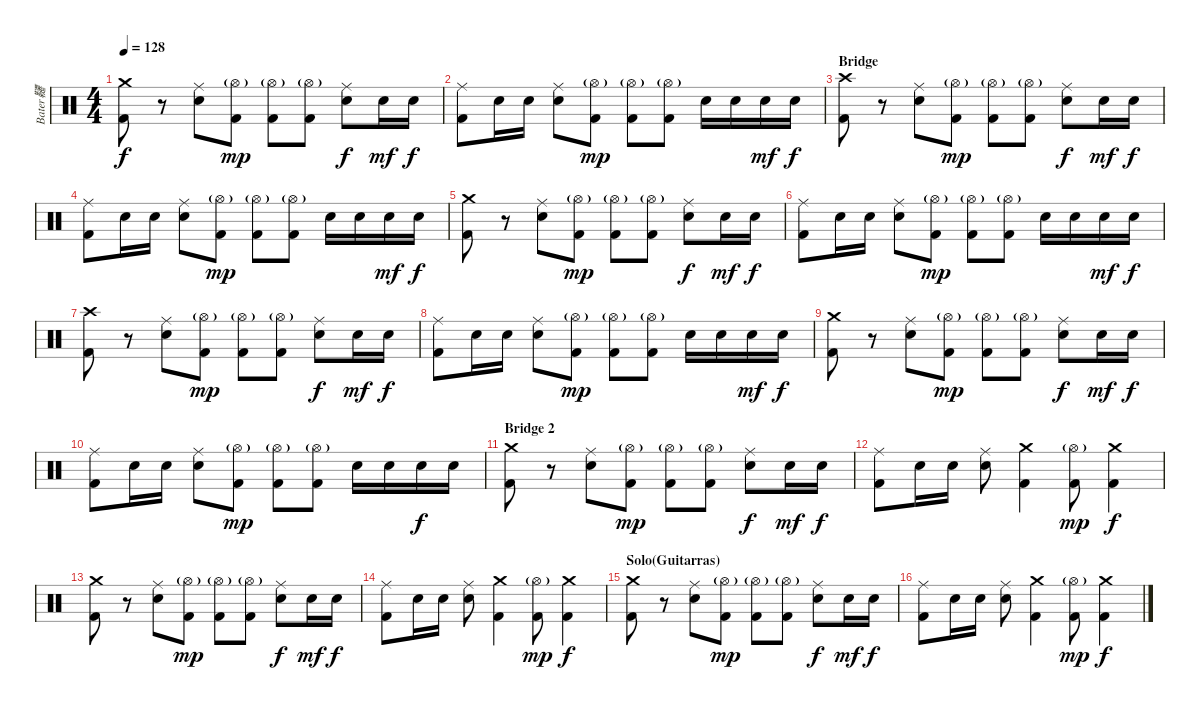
\track ("Bater韆" "Bater韆") {instrument percussion}
\staff {score}
\articulation defaults
\ts (4 4)
\tempo 128
\clef neutral
\ks c
("Crash medium (hit)" "Kick (hit) 2").8{dy f} r.8 ("Ride (middle)" "Electric Snare (hit)").8 ("Hi-Hat (open)"{g} "Kick (hit) 2").8{dy mp} ("Hi-Hat (open)"{g} "Kick (hit) 2").8 ("Hi-Hat (open)"{g} "Kick (hit) 2").8 ("Ride (middle)" "Electric Snare (hit)").8{dy f} "Electric Snare (hit)".16{dy mf} "Electric Snare (hit)".16{dy f} |
("Ride (middle)" "Kick (hit) 2").8 "Electric Snare (hit)".16 "Electric Snare (hit)".16 ("Ride (middle)" "Electric Snare (hit)").8 ("Hi-Hat (open)"{g} "Kick (hit) 2").8{dy mp} ("Hi-Hat (open)"{g} "Kick (hit) 2").8 ("Hi-Hat (open)"{g} "Kick (hit) 2").8 "Electric Snare (hit)".16 "Electric Snare (hit)".16 "Electric Snare (hit)".16{dy mf} "Electric Snare (hit)".16{dy f} |
\section ("" "Bridge")
("Crash high (hit)" "Kick (hit) 2").8 r.8 ("Ride (middle)" "Electric Snare (hit)").8 ("Hi-Hat (open)"{g} "Kick (hit) 2").8{dy mp} ("Hi-Hat (open)"{g} "Kick (hit) 2").8 ("Hi-Hat (open)"{g} "Kick (hit) 2").8 ("Ride (middle)" "Electric Snare (hit)").8{dy f} "Electric Snare (hit)".16{dy mf} "Electric Snare (hit)".16{dy f} |
("Ride (middle)" "Kick (hit) 2").8 "Electric Snare (hit)".16 "Electric Snare (hit)".16 ("Ride (middle)" "Electric Snare (hit)").8 ("Hi-Hat (open)"{g} "Kick (hit) 2").8{dy mp} ("Hi-Hat (open)"{g} "Kick (hit) 2").8 ("Hi-Hat (open)"{g} "Kick (hit) 2").8 "Electric Snare (hit)".16 "Electric Snare (hit)".16 "Electric Snare (hit)".16{dy mf} "Electric Snare (hit)".16{dy f} |
("Crash medium (hit)" "Kick (hit) 2").8 r.8 ("Ride (middle)" "Electric Snare (hit)").8 ("Hi-Hat (open)"{g} "Kick (hit) 2").8{dy mp} ("Hi-Hat (open)"{g} "Kick (hit) 2").8 ("Hi-Hat (open)"{g} "Kick (hit) 2").8 ("Ride (middle)" "Electric Snare (hit)").8{dy f} "Electric Snare (hit)".16{dy mf} "Electric Snare (hit)".16{dy f} |
("Ride (middle)" "Kick (hit) 2").8 "Electric Snare (hit)".16 "Electric Snare (hit)".16 ("Ride (middle)" "Electric Snare (hit)").8 ("Hi-Hat (open)"{g} "Kick (hit) 2").8{dy mp} ("Hi-Hat (open)"{g} "Kick (hit) 2").8 ("Hi-Hat (open)"{g} "Kick (hit) 2").8 "Electric Snare (hit)".16 "Electric Snare (hit)".16 "Electric Snare (hit)".16{dy mf} "Electric Snare (hit)".16{dy f} |
("Crash high (hit)" "Kick (hit) 2").8 r.8 ("Ride (middle)" "Electric Snare (hit)").8 ("Hi-Hat (open)"{g} "Kick (hit) 2").8{dy mp} ("Hi-Hat (open)"{g} "Kick (hit) 2").8 ("Hi-Hat (open)"{g} "Kick (hit) 2").8 ("Ride (middle)" "Electric Snare (hit)").8{dy f} "Electric Snare (hit)".16{dy mf} "Electric Snare (hit)".16{dy f} |
("Ride (middle)" "Kick (hit) 2").8 "Electric Snare (hit)".16 "Electric Snare (hit)".16 ("Ride (middle)" "Electric Snare (hit)").8 ("Hi-Hat (open)"{g} "Kick (hit) 2").8{dy mp} ("Hi-Hat (open)"{g} "Kick (hit) 2").8 ("Hi-Hat (open)"{g} "Kick (hit) 2").8 "Electric Snare (hit)".16 "Electric Snare (hit)".16 "Electric Snare (hit)".16{dy mf} "Electric Snare (hit)".16{dy f} |
("Crash medium (hit)" "Kick (hit) 2").8 r.8 ("Ride (middle)" "Electric Snare (hit)").8 ("Hi-Hat (open)"{g} "Kick (hit) 2").8{dy mp} ("Hi-Hat (open)"{g} "Kick (hit) 2").8 ("Hi-Hat (open)"{g} "Kick (hit) 2").8 ("Ride (middle)" "Electric Snare (hit)").8{dy f} "Electric Snare (hit)".16{dy mf} "Electric Snare (hit)".16{dy f} |
("Ride (middle)" "Kick (hit) 2").8 "Electric Snare (hit)".16 "Electric Snare (hit)".16 ("Ride (middle)" "Electric Snare (hit)").8 ("Hi-Hat (open)"{g} "Kick (hit) 2").8{dy mp} ("Hi-Hat (open)"{g} "Kick (hit) 2").8 ("Hi-Hat (open)"{g} "Kick (hit) 2").8 "Electric Snare (hit)".16 "Electric Snare (hit)".16 "Electric Snare (hit)".16{dy f} "Electric Snare (hit)".16 |
\section ("" "Bridge 2")
("Crash medium (hit)" "Kick (hit) 2").8 r.8 ("Ride (middle)" "Electric Snare (hit)").8 ("Hi-Hat (open)"{g} "Kick (hit) 2").8{dy mp} ("Hi-Hat (open)"{g} "Kick (hit) 2").8 ("Hi-Hat (open)"{g} "Kick (hit) 2").8 ("Ride (middle)" "Electric Snare (hit)").8{dy f} "Electric Snare (hit)".16{dy mf} "Electric Snare (hit)".16{dy f} |
("Ride (middle)" "Kick (hit) 2").8 "Electric Snare (hit)".16 "Electric Snare (hit)".16 ("Ride (middle)" "Electric Snare (hit)").8 ("Crash medium (hit)" "Kick (hit) 2").4 ("Hi-Hat (open)"{g} "Kick (hit) 2").8{dy mp} ("Crash medium (hit)" "Kick (hit) 2").4{dy f} |
("Crash medium (hit)" "Kick (hit) 2").8 r.8 ("Ride (middle)" "Electric Snare (hit)").8 ("Hi-Hat (open)"{g} "Kick (hit) 2").8{dy mp} ("Hi-Hat (open)"{g} "Kick (hit) 2").8 ("Hi-Hat (open)"{g} "Kick (hit) 2").8 ("Ride (middle)" "Electric Snare (hit)").8{dy f} "Electric Snare (hit)".16{dy mf} "Electric Snare (hit)".16{dy f} |
("Ride (middle)" "Kick (hit) 2").8 "Electric Snare (hit)".16 "Electric Snare (hit)".16 ("Ride (middle)" "Electric Snare (hit)").8 ("Crash medium (hit)" "Kick (hit) 2").4 ("Hi-Hat (open)"{g} "Kick (hit) 2").8{dy mp} ("Crash medium (hit)" "Kick (hit) 2").4{dy f} |
\section ("" "Solo(Guitarras)")
("Crash medium (hit)" "Kick (hit) 2").8 r.8 ("Ride (middle)" "Electric Snare (hit)").8 ("Hi-Hat (open)"{g} "Kick (hit) 2").8{dy mp} ("Hi-Hat (open)"{g} "Kick (hit) 2").8 ("Hi-Hat (open)"{g} "Kick (hit) 2").8 ("Ride (middle)" "Electric Snare (hit)").8{dy f} "Electric Snare (hit)".16{dy mf} "Electric Snare (hit)".16{dy f} |
("Ride (middle)" "Kick (hit) 2").8 "Electric Snare (hit)".16 "Electric Snare (hit)".16 ("Ride (middle)" "Electric Snare (hit)").8 ("Crash medium (hit)" "Kick (hit) 2").4 ("Hi-Hat (open)"{g} "Kick (hit) 2").8{dy mp} ("Crash medium (hit)" "Kick (hit) 2").4{dy f}
